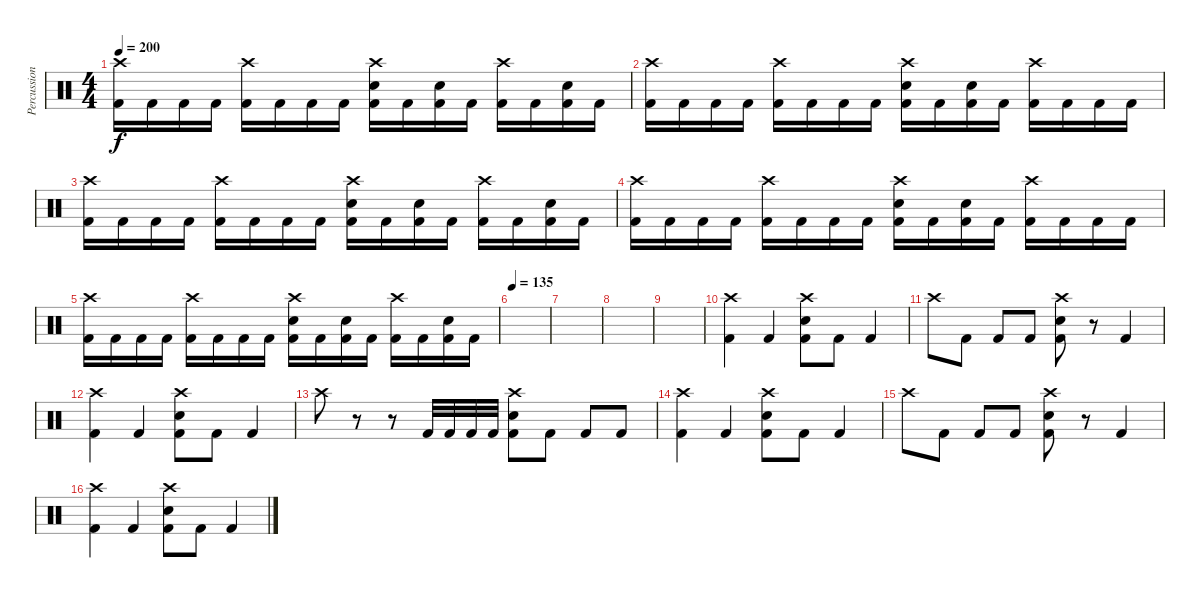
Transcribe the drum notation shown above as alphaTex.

\track ("Percussion" "Percussion") {instrument percussion}
\staff {score}
\articulation defaults
\ts (4 4)
\tempo 200
\clef neutral
\ks c
("Crash high (hit)" "Kick (hit) 2").16{dy f} "Kick (hit) 2".16 "Kick (hit) 2".16 "Kick (hit) 2".16 ("Crash high (hit)" "Kick (hit) 2").16 "Kick (hit) 2".16 "Kick (hit) 2".16 "Kick (hit) 2".16 ("Crash high (hit)" "Electric Snare (hit)" "Kick (hit) 2").16 "Kick (hit) 2".16 ("Electric Snare (hit)" "Kick (hit) 2").16 "Kick (hit) 2".16 ("Crash high (hit)" "Kick (hit) 2").16 "Kick (hit) 2".16 ("Electric Snare (hit)" "Kick (hit) 2").16 "Kick (hit) 2".16 |
("Crash high (hit)" "Kick (hit) 2").16 "Kick (hit) 2".16 "Kick (hit) 2".16 "Kick (hit) 2".16 ("Crash high (hit)" "Kick (hit) 2").16 "Kick (hit) 2".16 "Kick (hit) 2".16 "Kick (hit) 2".16 ("Crash high (hit)" "Electric Snare (hit)" "Kick (hit) 2").16 "Kick (hit) 2".16 ("Electric Snare (hit)" "Kick (hit) 2").16 "Kick (hit) 2".16 ("Crash high (hit)" "Kick (hit) 2").16 "Kick (hit) 2".16 "Kick (hit) 2".16 "Kick (hit) 2".16 |
("Crash high (hit)" "Kick (hit) 2").16 "Kick (hit) 2".16 "Kick (hit) 2".16 "Kick (hit) 2".16 ("Crash high (hit)" "Kick (hit) 2").16 "Kick (hit) 2".16 "Kick (hit) 2".16 "Kick (hit) 2".16 ("Crash high (hit)" "Electric Snare (hit)" "Kick (hit) 2").16 "Kick (hit) 2".16 ("Electric Snare (hit)" "Kick (hit) 2").16 "Kick (hit) 2".16 ("Crash high (hit)" "Kick (hit) 2").16 "Kick (hit) 2".16 ("Electric Snare (hit)" "Kick (hit) 2").16 "Kick (hit) 2".16 |
("Crash high (hit)" "Kick (hit) 2").16 "Kick (hit) 2".16 "Kick (hit) 2".16 "Kick (hit) 2".16 ("Crash high (hit)" "Kick (hit) 2").16 "Kick (hit) 2".16 "Kick (hit) 2".16 "Kick (hit) 2".16 ("Crash high (hit)" "Electric Snare (hit)" "Kick (hit) 2").16 "Kick (hit) 2".16 ("Electric Snare (hit)" "Kick (hit) 2").16 "Kick (hit) 2".16 ("Crash high (hit)" "Kick (hit) 2").16 "Kick (hit) 2".16 "Kick (hit) 2".16 "Kick (hit) 2".16 |
("Crash high (hit)" "Kick (hit) 2").16 "Kick (hit) 2".16 "Kick (hit) 2".16 "Kick (hit) 2".16 ("Crash high (hit)" "Kick (hit) 2").16 "Kick (hit) 2".16 "Kick (hit) 2".16 "Kick (hit) 2".16 ("Crash high (hit)" "Electric Snare (hit)" "Kick (hit) 2").16 "Kick (hit) 2".16 ("Electric Snare (hit)" "Kick (hit) 2").16 "Kick (hit) 2".16 ("Crash high (hit)" "Kick (hit) 2").16 "Kick (hit) 2".16 ("Electric Snare (hit)" "Kick (hit) 2").16 "Kick (hit) 2".16 |
\tempo 135
|
|
|
|
("Crash high (hit)" "Kick (hit) 2").4 "Kick (hit) 2".4 ("Crash high (hit)" "Electric Snare (hit)" "Kick (hit) 2").8 "Kick (hit) 2".8 "Kick (hit) 2".4 |
"Crash high (hit)".8 "Kick (hit) 2".8 "Kick (hit) 2".8 "Kick (hit) 2".8 ("Crash high (hit)" "Electric Snare (hit)" "Kick (hit) 2").8 r.8 "Kick (hit) 2".4 |
("Crash high (hit)" "Kick (hit) 2").4 "Kick (hit) 2".4 ("Crash high (hit)" "Electric Snare (hit)" "Kick (hit) 2").8 "Kick (hit) 2".8 "Kick (hit) 2".4 |
"Crash high (hit)".8 r.8 r.8 "Kick (hit) 2".32 "Kick (hit) 2".32 "Kick (hit) 2".32 "Kick (hit) 2".32 ("Crash high (hit)" "Electric Snare (hit)" "Kick (hit) 2").8 "Kick (hit) 2".8 "Kick (hit) 2".8 "Kick (hit) 2".8 |
("Crash high (hit)" "Kick (hit) 2").4 "Kick (hit) 2".4 ("Crash high (hit)" "Electric Snare (hit)" "Kick (hit) 2").8 "Kick (hit) 2".8 "Kick (hit) 2".4 |
"Crash high (hit)".8 "Kick (hit) 2".8 "Kick (hit) 2".8 "Kick (hit) 2".8 ("Crash high (hit)" "Electric Snare (hit)" "Kick (hit) 2").8 r.8 "Kick (hit) 2".4 |
("Crash high (hit)" "Kick (hit) 2").4 "Kick (hit) 2".4 ("Crash high (hit)" "Electric Snare (hit)" "Kick (hit) 2").8 "Kick (hit) 2".8 "Kick (hit) 2".4
